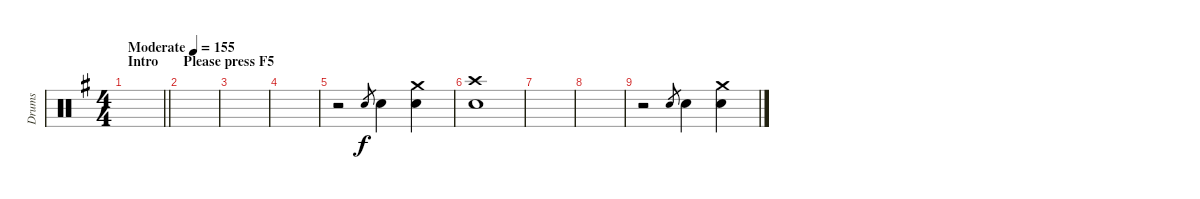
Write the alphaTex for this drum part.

\track ("Drums" "Drums") {instrument percussion}
\staff {score}
\articulation defaults
\ts (4 4)
\section ("" "Intro")
\tempo (155 "Moderate")
\clef neutral
\barLineRight lightlight
\ks g
|
\section ("" "Please press F5")
|
|
|
r.2 "Snare (hit) 2".8{gr} "Snare (hit) 2".4 ("Crash medium (hit)" "Snare (hit) 2").4 |
("Crash high (hit)" "Snare (hit) 2").1 |
|
|
r.2 "Snare (hit) 2".8{gr} "Snare (hit) 2".4 ("Crash medium (hit)" "Snare (hit) 2").4
